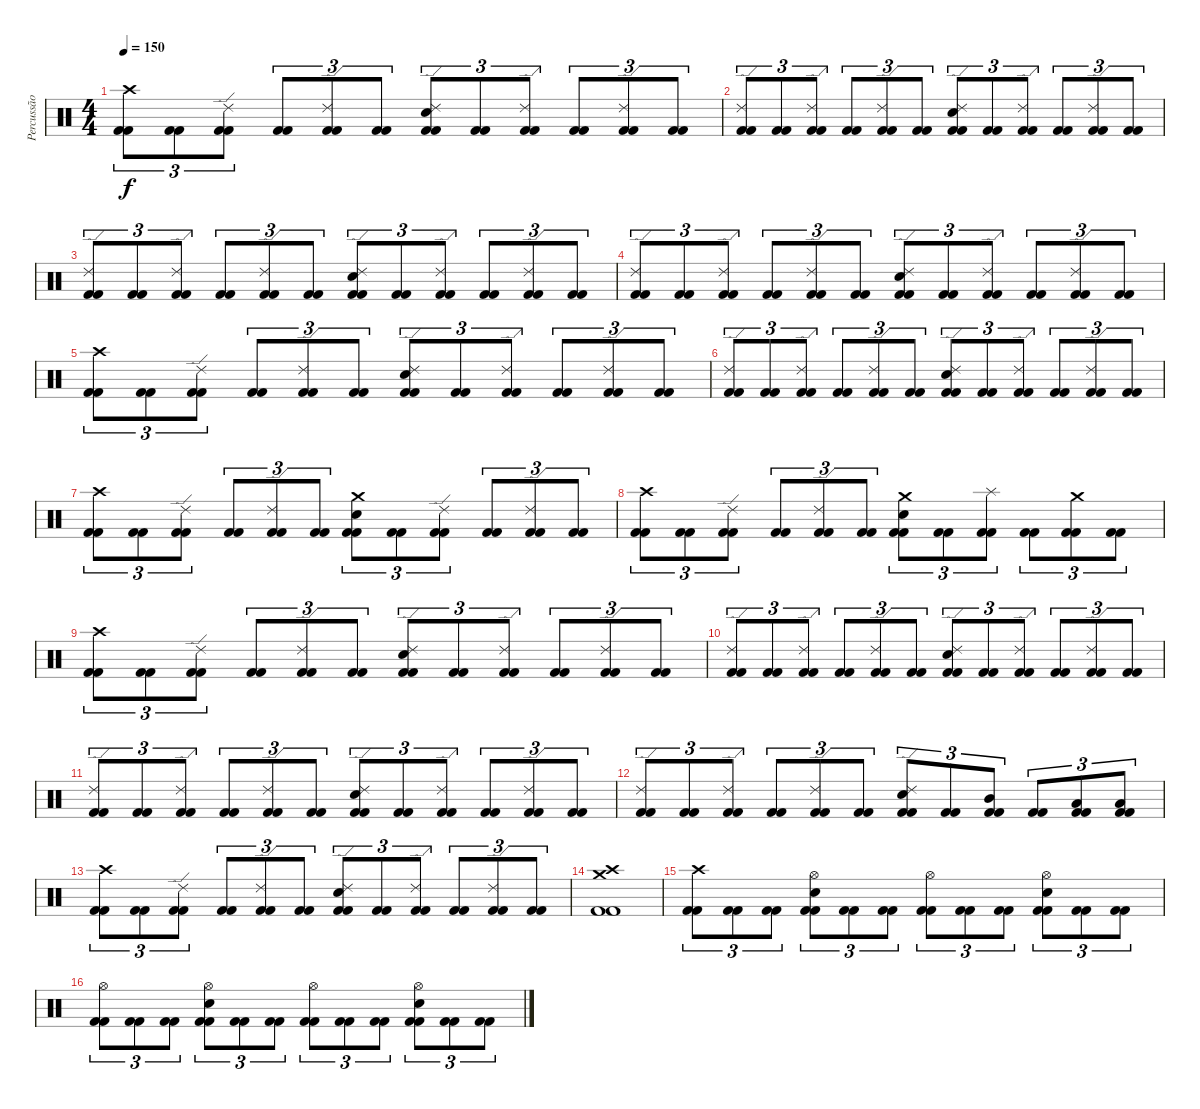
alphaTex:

\track ("Percussão" "Percussão") {instrument percussion}
\staff {score}
\articulation defaults
\ts (4 4)
\tempo 150
\clef neutral
\ks c
("Crash high (hit)" "Kick (hit) 2" "Kick (hit) 2").8{tu (3 2) dy f} ("Kick (hit) 2" "Kick (hit) 2").8{tu (3 2)} ("Ride (edge) 2" "Kick (hit) 2" "Kick (hit) 2").8{tu (3 2)} ("Kick (hit) 2" "Kick (hit) 2").8{tu (3 2)} ("Ride (edge) 2" "Kick (hit) 2" "Kick (hit) 2").8{tu (3 2)} ("Kick (hit) 2" "Kick (hit) 2").8{tu (3 2)} ("Ride (edge) 2" "Electric Snare (hit)" "Kick (hit) 2" "Kick (hit) 2").8{tu (3 2)} ("Kick (hit) 2" "Kick (hit) 2").8{tu (3 2)} ("Ride (edge) 2" "Kick (hit) 2" "Kick (hit) 2").8{tu (3 2)} ("Kick (hit) 2" "Kick (hit) 2").8{tu (3 2)} ("Ride (edge) 2" "Kick (hit) 2" "Kick (hit) 2").8{tu (3 2)} ("Kick (hit) 2" "Kick (hit) 2").8{tu (3 2)} |
("Ride (edge) 2" "Kick (hit) 2" "Kick (hit) 2").8{tu (3 2)} ("Kick (hit) 2" "Kick (hit) 2").8{tu (3 2)} ("Ride (edge) 2" "Kick (hit) 2" "Kick (hit) 2").8{tu (3 2)} ("Kick (hit) 2" "Kick (hit) 2").8{tu (3 2)} ("Ride (edge) 2" "Kick (hit) 2" "Kick (hit) 2").8{tu (3 2)} ("Kick (hit) 2" "Kick (hit) 2").8{tu (3 2)} ("Ride (edge) 2" "Electric Snare (hit)" "Kick (hit) 2" "Kick (hit) 2").8{tu (3 2)} ("Kick (hit) 2" "Kick (hit) 2").8{tu (3 2)} ("Ride (edge) 2" "Kick (hit) 2" "Kick (hit) 2").8{tu (3 2)} ("Kick (hit) 2" "Kick (hit) 2").8{tu (3 2)} ("Ride (edge) 2" "Kick (hit) 2" "Kick (hit) 2").8{tu (3 2)} ("Kick (hit) 2" "Kick (hit) 2").8{tu (3 2)} |
("Ride (edge) 2" "Kick (hit) 2" "Kick (hit) 2").8{tu (3 2)} ("Kick (hit) 2" "Kick (hit) 2").8{tu (3 2)} ("Ride (edge) 2" "Kick (hit) 2" "Kick (hit) 2").8{tu (3 2)} ("Kick (hit) 2" "Kick (hit) 2").8{tu (3 2)} ("Ride (edge) 2" "Kick (hit) 2" "Kick (hit) 2").8{tu (3 2)} ("Kick (hit) 2" "Kick (hit) 2").8{tu (3 2)} ("Ride (edge) 2" "Electric Snare (hit)" "Kick (hit) 2" "Kick (hit) 2").8{tu (3 2)} ("Kick (hit) 2" "Kick (hit) 2").8{tu (3 2)} ("Ride (edge) 2" "Kick (hit) 2" "Kick (hit) 2").8{tu (3 2)} ("Kick (hit) 2" "Kick (hit) 2").8{tu (3 2)} ("Ride (edge) 2" "Kick (hit) 2" "Kick (hit) 2").8{tu (3 2)} ("Kick (hit) 2" "Kick (hit) 2").8{tu (3 2)} |
("Ride (edge) 2" "Kick (hit) 2" "Kick (hit) 2").8{tu (3 2)} ("Kick (hit) 2" "Kick (hit) 2").8{tu (3 2)} ("Ride (edge) 2" "Kick (hit) 2" "Kick (hit) 2").8{tu (3 2)} ("Kick (hit) 2" "Kick (hit) 2").8{tu (3 2)} ("Ride (edge) 2" "Kick (hit) 2" "Kick (hit) 2").8{tu (3 2)} ("Kick (hit) 2" "Kick (hit) 2").8{tu (3 2)} ("Ride (edge) 2" "Electric Snare (hit)" "Kick (hit) 2" "Kick (hit) 2").8{tu (3 2)} ("Kick (hit) 2" "Kick (hit) 2").8{tu (3 2)} ("Ride (edge) 2" "Kick (hit) 2" "Kick (hit) 2").8{tu (3 2)} ("Kick (hit) 2" "Kick (hit) 2").8{tu (3 2)} ("Ride (edge) 2" "Kick (hit) 2" "Kick (hit) 2").8{tu (3 2)} ("Kick (hit) 2" "Kick (hit) 2").8{tu (3 2)} |
("Crash high (hit)" "Kick (hit) 2" "Kick (hit) 2").8{tu (3 2)} ("Kick (hit) 2" "Kick (hit) 2").8{tu (3 2)} ("Ride (edge) 2" "Kick (hit) 2" "Kick (hit) 2").8{tu (3 2)} ("Kick (hit) 2" "Kick (hit) 2").8{tu (3 2)} ("Ride (edge) 2" "Kick (hit) 2" "Kick (hit) 2").8{tu (3 2)} ("Kick (hit) 2" "Kick (hit) 2").8{tu (3 2)} ("Ride (edge) 2" "Electric Snare (hit)" "Kick (hit) 2" "Kick (hit) 2").8{tu (3 2)} ("Kick (hit) 2" "Kick (hit) 2").8{tu (3 2)} ("Ride (edge) 2" "Kick (hit) 2" "Kick (hit) 2").8{tu (3 2)} ("Kick (hit) 2" "Kick (hit) 2").8{tu (3 2)} ("Ride (edge) 2" "Kick (hit) 2" "Kick (hit) 2").8{tu (3 2)} ("Kick (hit) 2" "Kick (hit) 2").8{tu (3 2)} |
("Ride (edge) 2" "Kick (hit) 2" "Kick (hit) 2").8{tu (3 2)} ("Kick (hit) 2" "Kick (hit) 2").8{tu (3 2)} ("Ride (edge) 2" "Kick (hit) 2" "Kick (hit) 2").8{tu (3 2)} ("Kick (hit) 2" "Kick (hit) 2").8{tu (3 2)} ("Ride (edge) 2" "Kick (hit) 2" "Kick (hit) 2").8{tu (3 2)} ("Kick (hit) 2" "Kick (hit) 2").8{tu (3 2)} ("Ride (edge) 2" "Electric Snare (hit)" "Kick (hit) 2" "Kick (hit) 2").8{tu (3 2)} ("Kick (hit) 2" "Kick (hit) 2").8{tu (3 2)} ("Ride (edge) 2" "Kick (hit) 2" "Kick (hit) 2").8{tu (3 2)} ("Kick (hit) 2" "Kick (hit) 2").8{tu (3 2)} ("Ride (edge) 2" "Kick (hit) 2" "Kick (hit) 2").8{tu (3 2)} ("Kick (hit) 2" "Kick (hit) 2").8{tu (3 2)} |
("Crash high (hit)" "Kick (hit) 2" "Kick (hit) 2").8{tu (3 2)} ("Kick (hit) 2" "Kick (hit) 2").8{tu (3 2)} ("Ride (edge) 2" "Kick (hit) 2" "Kick (hit) 2").8{tu (3 2)} ("Kick (hit) 2" "Kick (hit) 2").8{tu (3 2)} ("Ride (edge) 2" "Kick (hit) 2" "Kick (hit) 2").8{tu (3 2)} ("Kick (hit) 2" "Kick (hit) 2").8{tu (3 2)} ("Crash medium (hit)" "Electric Snare (hit)" "Kick (hit) 2" "Kick (hit) 2").8{tu (3 2)} ("Kick (hit) 2" "Kick (hit) 2").8{tu (3 2)} ("Ride (edge) 2" "Kick (hit) 2" "Kick (hit) 2").8{tu (3 2)} ("Kick (hit) 2" "Kick (hit) 2").8{tu (3 2)} ("Ride (edge) 2" "Kick (hit) 2" "Kick (hit) 2").8{tu (3 2)} ("Kick (hit) 2" "Kick (hit) 2").8{tu (3 2)} |
("Crash high (hit)" "Kick (hit) 2" "Kick (hit) 2").8{tu (3 2)} ("Kick (hit) 2" "Kick (hit) 2").8{tu (3 2)} ("Ride (edge) 2" "Kick (hit) 2" "Kick (hit) 2").8{tu (3 2)} ("Kick (hit) 2" "Kick (hit) 2").8{tu (3 2)} ("Ride (edge) 2" "Kick (hit) 2" "Kick (hit) 2").8{tu (3 2)} ("Kick (hit) 2" "Kick (hit) 2").8{tu (3 2)} ("Crash medium (hit)" "Electric Snare (hit)" "Kick (hit) 2" "Kick (hit) 2").8{tu (3 2)} ("Kick (hit) 2" "Kick (hit) 2").8{tu (3 2)} ("Splash (hit)" "Kick (hit) 2" "Kick (hit) 2").8{tu (3 2)} ("Kick (hit) 2" "Kick (hit) 2").8{tu (3 2)} ("Crash medium (hit)" "Kick (hit) 2" "Kick (hit) 2").8{tu (3 2)} ("Kick (hit) 2" "Kick (hit) 2").8{tu (3 2)} |
("Crash high (hit)" "Kick (hit) 2" "Kick (hit) 2").8{tu (3 2)} ("Kick (hit) 2" "Kick (hit) 2").8{tu (3 2)} ("Ride (edge) 2" "Kick (hit) 2" "Kick (hit) 2").8{tu (3 2)} ("Kick (hit) 2" "Kick (hit) 2").8{tu (3 2)} ("Ride (edge) 2" "Kick (hit) 2" "Kick (hit) 2").8{tu (3 2)} ("Kick (hit) 2" "Kick (hit) 2").8{tu (3 2)} ("Ride (edge) 2" "Electric Snare (hit)" "Kick (hit) 2" "Kick (hit) 2").8{tu (3 2)} ("Kick (hit) 2" "Kick (hit) 2").8{tu (3 2)} ("Ride (edge) 2" "Kick (hit) 2" "Kick (hit) 2").8{tu (3 2)} ("Kick (hit) 2" "Kick (hit) 2").8{tu (3 2)} ("Ride (edge) 2" "Kick (hit) 2" "Kick (hit) 2").8{tu (3 2)} ("Kick (hit) 2" "Kick (hit) 2").8{tu (3 2)} |
("Ride (edge) 2" "Kick (hit) 2" "Kick (hit) 2").8{tu (3 2)} ("Kick (hit) 2" "Kick (hit) 2").8{tu (3 2)} ("Ride (edge) 2" "Kick (hit) 2" "Kick (hit) 2").8{tu (3 2)} ("Kick (hit) 2" "Kick (hit) 2").8{tu (3 2)} ("Ride (edge) 2" "Kick (hit) 2" "Kick (hit) 2").8{tu (3 2)} ("Kick (hit) 2" "Kick (hit) 2").8{tu (3 2)} ("Ride (edge) 2" "Electric Snare (hit)" "Kick (hit) 2" "Kick (hit) 2").8{tu (3 2)} ("Kick (hit) 2" "Kick (hit) 2").8{tu (3 2)} ("Ride (edge) 2" "Kick (hit) 2" "Kick (hit) 2").8{tu (3 2)} ("Kick (hit) 2" "Kick (hit) 2").8{tu (3 2)} ("Ride (edge) 2" "Kick (hit) 2" "Kick (hit) 2").8{tu (3 2)} ("Kick (hit) 2" "Kick (hit) 2").8{tu (3 2)} |
("Ride (edge) 2" "Kick (hit) 2" "Kick (hit) 2").8{tu (3 2)} ("Kick (hit) 2" "Kick (hit) 2").8{tu (3 2)} ("Ride (edge) 2" "Kick (hit) 2" "Kick (hit) 2").8{tu (3 2)} ("Kick (hit) 2" "Kick (hit) 2").8{tu (3 2)} ("Ride (edge) 2" "Kick (hit) 2" "Kick (hit) 2").8{tu (3 2)} ("Kick (hit) 2" "Kick (hit) 2").8{tu (3 2)} ("Ride (edge) 2" "Electric Snare (hit)" "Kick (hit) 2" "Kick (hit) 2").8{tu (3 2)} ("Kick (hit) 2" "Kick (hit) 2").8{tu (3 2)} ("Ride (edge) 2" "Kick (hit) 2" "Kick (hit) 2").8{tu (3 2)} ("Kick (hit) 2" "Kick (hit) 2").8{tu (3 2)} ("Ride (edge) 2" "Kick (hit) 2" "Kick (hit) 2").8{tu (3 2)} ("Kick (hit) 2" "Kick (hit) 2").8{tu (3 2)} |
("Ride (edge) 2" "Kick (hit) 2" "Kick (hit) 2").8{tu (3 2)} ("Kick (hit) 2" "Kick (hit) 2").8{tu (3 2)} ("Ride (edge) 2" "Kick (hit) 2" "Kick (hit) 2").8{tu (3 2)} ("Kick (hit) 2" "Kick (hit) 2").8{tu (3 2)} ("Ride (edge) 2" "Kick (hit) 2" "Kick (hit) 2").8{tu (3 2)} ("Kick (hit) 2" "Kick (hit) 2").8{tu (3 2)} ("Ride (edge) 2" "Electric Snare (hit)" "Kick (hit) 2" "Kick (hit) 2").8{tu (3 2)} ("Kick (hit) 2" "Kick (hit) 2").8{tu (3 2)} ("Mid Tom (hit)" "Kick (hit) 2" "Kick (hit) 2").8{tu (3 2)} ("Kick (hit) 2" "Kick (hit) 2").8{tu (3 2)} ("Low Tom (hit)" "Kick (hit) 2" "Kick (hit) 2").8{tu (3 2)} ("Low Tom (hit)" "Kick (hit) 2" "Kick (hit) 2").8{tu (3 2)} |
("Crash high (hit)" "Kick (hit) 2" "Kick (hit) 2").8{tu (3 2)} ("Kick (hit) 2" "Kick (hit) 2").8{tu (3 2)} ("Ride (edge) 2" "Kick (hit) 2" "Kick (hit) 2").8{tu (3 2)} ("Kick (hit) 2" "Kick (hit) 2").8{tu (3 2)} ("Ride (edge) 2" "Kick (hit) 2" "Kick (hit) 2").8{tu (3 2)} ("Kick (hit) 2" "Kick (hit) 2").8{tu (3 2)} ("Ride (edge) 2" "Electric Snare (hit)" "Kick (hit) 2" "Kick (hit) 2").8{tu (3 2)} ("Kick (hit) 2" "Kick (hit) 2").8{tu (3 2)} ("Ride (edge) 2" "Kick (hit) 2" "Kick (hit) 2").8{tu (3 2)} ("Kick (hit) 2" "Kick (hit) 2").8{tu (3 2)} ("Ride (edge) 2" "Kick (hit) 2" "Kick (hit) 2").8{tu (3 2)} ("Kick (hit) 2" "Kick (hit) 2").8{tu (3 2)} |
("Crash high (hit)" "Crash medium (hit)" "Kick (hit) 2" "Kick (hit) 2").1 |
("Crash high (hit)" "Kick (hit) 2" "Kick (hit) 2").8{tu (3 2)} ("Kick (hit) 2" "Kick (hit) 2").8{tu (3 2)} ("Kick (hit) 2" "Kick (hit) 2").8{tu (3 2)} ("Hi-Hat (open)" "Electric Snare (hit)" "Kick (hit) 2" "Kick (hit) 2").8{tu (3 2)} ("Kick (hit) 2" "Kick (hit) 2").8{tu (3 2)} ("Kick (hit) 2" "Kick (hit) 2").8{tu (3 2)} ("Hi-Hat (open)" "Kick (hit) 2" "Kick (hit) 2").8{tu (3 2)} ("Kick (hit) 2" "Kick (hit) 2").8{tu (3 2)} ("Kick (hit) 2" "Kick (hit) 2").8{tu (3 2)} ("Hi-Hat (open)" "Electric Snare (hit)" "Kick (hit) 2" "Kick (hit) 2").8{tu (3 2)} ("Kick (hit) 2" "Kick (hit) 2").8{tu (3 2)} ("Kick (hit) 2" "Kick (hit) 2").8{tu (3 2)} |
("Hi-Hat (open)" "Kick (hit) 2" "Kick (hit) 2").8{tu (3 2)} ("Kick (hit) 2" "Kick (hit) 2").8{tu (3 2)} ("Kick (hit) 2" "Kick (hit) 2").8{tu (3 2)} ("Hi-Hat (open)" "Electric Snare (hit)" "Kick (hit) 2" "Kick (hit) 2").8{tu (3 2)} ("Kick (hit) 2" "Kick (hit) 2").8{tu (3 2)} ("Kick (hit) 2" "Kick (hit) 2").8{tu (3 2)} ("Hi-Hat (open)" "Kick (hit) 2" "Kick (hit) 2").8{tu (3 2)} ("Kick (hit) 2" "Kick (hit) 2").8{tu (3 2)} ("Kick (hit) 2" "Kick (hit) 2").8{tu (3 2)} ("Hi-Hat (open)" "Electric Snare (hit)" "Kick (hit) 2" "Kick (hit) 2").8{tu (3 2)} ("Kick (hit) 2" "Kick (hit) 2").8{tu (3 2)} ("Kick (hit) 2" "Kick (hit) 2").8{tu (3 2)}
